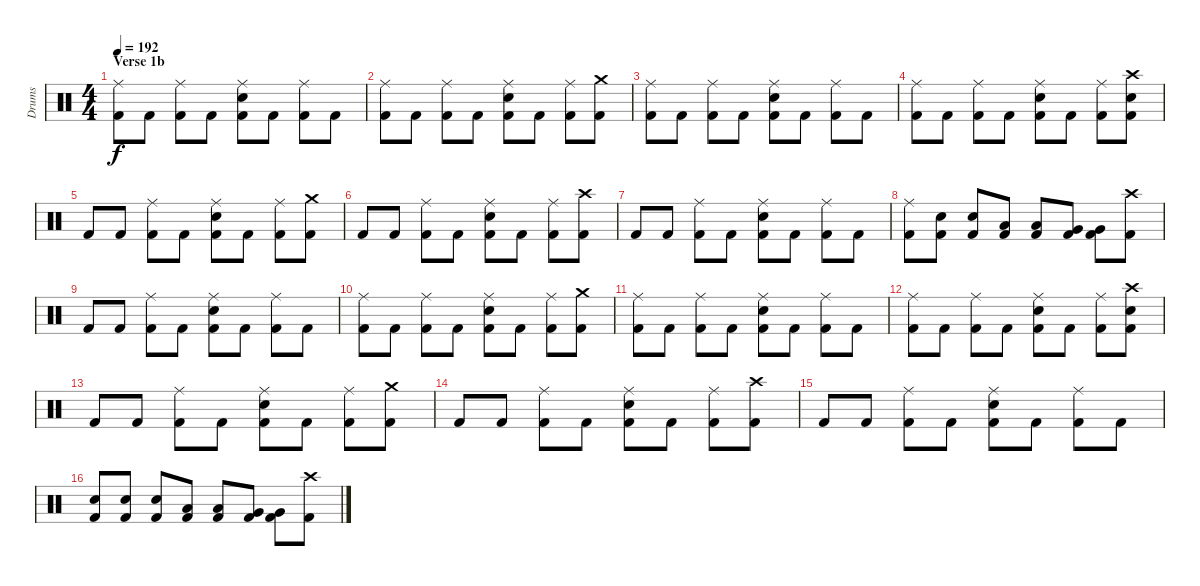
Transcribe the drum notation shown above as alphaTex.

\track ("Drums" "Drums") {instrument percussion}
\staff {score}
\articulation defaults
\ts (4 4)
\section ("" "Verse 1b")
\tempo 192
\clef neutral
\ks c
("Ride (middle)" "Kick (hit) 2").8{dy f} "Kick (hit) 2".8 ("Ride (middle)" "Kick (hit) 2").8 "Kick (hit) 2".8 ("Ride (middle)" "Snare (hit) 2" "Kick (hit) 2").8 "Kick (hit) 2".8 ("Ride (middle)" "Kick (hit) 2").8 "Kick (hit) 2".8 |
("Ride (middle)" "Kick (hit) 2").8 "Kick (hit) 2".8 ("Ride (middle)" "Kick (hit) 2").8 "Kick (hit) 2".8 ("Ride (middle)" "Snare (hit) 2" "Kick (hit) 2").8 "Kick (hit) 2".8 ("Ride (middle)" "Kick (hit) 2").8 ("Crash medium (hit)" "Kick (hit) 2").8 |
("Ride (middle)" "Kick (hit) 2").8 "Kick (hit) 2".8 ("Ride (middle)" "Kick (hit) 2").8 "Kick (hit) 2".8 ("Ride (middle)" "Snare (hit) 2" "Kick (hit) 2").8 "Kick (hit) 2".8 ("Ride (middle)" "Kick (hit) 2").8 "Kick (hit) 2".8 |
("Ride (middle)" "Kick (hit) 2").8 "Kick (hit) 2".8 ("Ride (middle)" "Kick (hit) 2").8 "Kick (hit) 2".8 ("Ride (middle)" "Snare (hit) 2" "Kick (hit) 2").8 "Kick (hit) 2".8 ("Ride (middle)" "Kick (hit) 2").8 ("Crash high (hit)" "Snare (hit) 2" "Kick (hit) 2").8 |
"Kick (hit) 2".8 "Kick (hit) 2".8 ("Ride (middle)" "Kick (hit) 2").8 "Kick (hit) 2".8 ("Ride (middle)" "Snare (hit) 2" "Kick (hit) 2").8 "Kick (hit) 2".8 ("Ride (middle)" "Kick (hit) 2").8 ("Crash medium (hit)" "Kick (hit) 2").8 |
"Kick (hit) 2".8 "Kick (hit) 2".8 ("Ride (middle)" "Kick (hit) 2").8 "Kick (hit) 2".8 ("Ride (middle)" "Snare (hit) 2" "Kick (hit) 2").8 "Kick (hit) 2".8 ("Ride (middle)" "Kick (hit) 2").8 ("Crash high (hit)" "Kick (hit) 2").8 |
"Kick (hit) 2".8 "Kick (hit) 2".8 ("Ride (middle)" "Kick (hit) 2").8 "Kick (hit) 2".8 ("Ride (middle)" "Snare (hit) 2" "Kick (hit) 2").8 "Kick (hit) 2".8 ("Ride (middle)" "Kick (hit) 2").8 "Kick (hit) 2".8 |
("Ride (middle)" "Kick (hit) 2").8 ("Snare (hit) 2" "Kick (hit) 2").8 ("Snare (hit) 2" "Kick (hit) 2").8 ("Low Tom (hit)" "Kick (hit) 2").8 ("Low Tom (hit)" "Kick (hit) 2").8 ("Very Low Tom (hit)" "Kick (hit) 2").8 ("Very Low Tom (hit)" "Kick (hit) 2").8 ("Crash high (hit)" "Kick (hit) 2").8 |
"Kick (hit) 2".8 "Kick (hit) 2".8 ("Ride (middle)" "Kick (hit) 2").8 "Kick (hit) 2".8 ("Ride (middle)" "Snare (hit) 2" "Kick (hit) 2").8 "Kick (hit) 2".8 ("Ride (middle)" "Kick (hit) 2").8 "Kick (hit) 2".8 |
("Ride (middle)" "Kick (hit) 2").8 "Kick (hit) 2".8 ("Ride (middle)" "Kick (hit) 2").8 "Kick (hit) 2".8 ("Ride (middle)" "Snare (hit) 2" "Kick (hit) 2").8 "Kick (hit) 2".8 ("Ride (middle)" "Kick (hit) 2").8 ("Crash medium (hit)" "Kick (hit) 2").8 |
("Ride (middle)" "Kick (hit) 2").8 "Kick (hit) 2".8 ("Ride (middle)" "Kick (hit) 2").8 "Kick (hit) 2".8 ("Ride (middle)" "Snare (hit) 2" "Kick (hit) 2").8 "Kick (hit) 2".8 ("Ride (middle)" "Kick (hit) 2").8 "Kick (hit) 2".8 |
("Ride (middle)" "Kick (hit) 2").8 "Kick (hit) 2".8 ("Ride (middle)" "Kick (hit) 2").8 "Kick (hit) 2".8 ("Ride (middle)" "Snare (hit) 2" "Kick (hit) 2").8 "Kick (hit) 2".8 ("Ride (middle)" "Kick (hit) 2").8 ("Crash high (hit)" "Snare (hit) 2" "Kick (hit) 2").8 |
"Kick (hit) 2".8 "Kick (hit) 2".8 ("Ride (middle)" "Kick (hit) 2").8 "Kick (hit) 2".8 ("Ride (middle)" "Snare (hit) 2" "Kick (hit) 2").8 "Kick (hit) 2".8 ("Ride (middle)" "Kick (hit) 2").8 ("Crash medium (hit)" "Kick (hit) 2").8 |
"Kick (hit) 2".8 "Kick (hit) 2".8 ("Ride (middle)" "Kick (hit) 2").8 "Kick (hit) 2".8 ("Ride (middle)" "Snare (hit) 2" "Kick (hit) 2").8 "Kick (hit) 2".8 ("Ride (middle)" "Kick (hit) 2").8 ("Crash high (hit)" "Kick (hit) 2").8 |
"Kick (hit) 2".8 "Kick (hit) 2".8 ("Ride (middle)" "Kick (hit) 2").8 "Kick (hit) 2".8 ("Ride (middle)" "Snare (hit) 2" "Kick (hit) 2").8 "Kick (hit) 2".8 ("Ride (middle)" "Kick (hit) 2").8 "Kick (hit) 2".8 |
("Snare (hit) 2" "Kick (hit) 2").8 ("Snare (hit) 2" "Kick (hit) 2").8 ("Snare (hit) 2" "Kick (hit) 2").8 ("Low Tom (hit)" "Kick (hit) 2").8 ("Low Tom (hit)" "Kick (hit) 2").8 ("Very Low Tom (hit)" "Kick (hit) 2").8 ("Very Low Tom (hit)" "Kick (hit) 2").8 ("Crash high (hit)" "Kick (hit) 2").8
